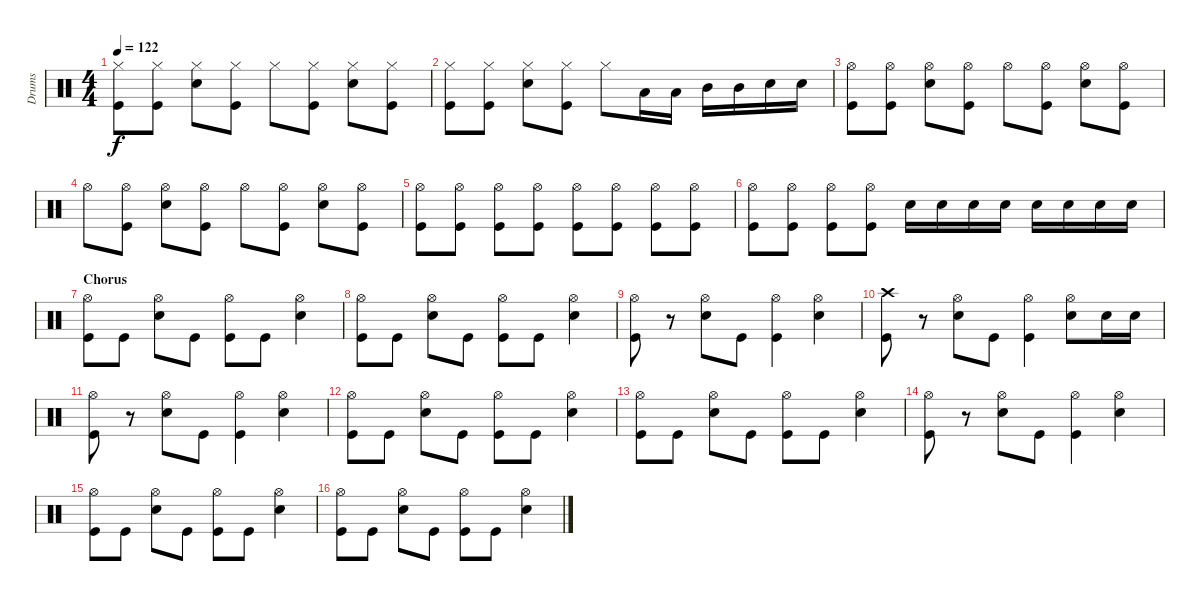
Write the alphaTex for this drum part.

\track ("Drums" "Drums") {instrument percussion}
\staff {score}
\articulation defaults
\ts (4 4)
\tempo 122
\clef neutral
\ks c
("Hi-Hat (closed)" "Kick (hit)").8{dy f} ("Hi-Hat (closed)" "Kick (hit)").8 ("Hi-Hat (closed)" "Snare (hit) 2").8 ("Hi-Hat (closed)" "Kick (hit)").8 "Hi-Hat (closed)".8 ("Hi-Hat (closed)" "Kick (hit)").8 ("Hi-Hat (closed)" "Snare (hit) 2").8 ("Hi-Hat (closed)" "Kick (hit)").8 |
("Hi-Hat (closed)" "Kick (hit)").8 ("Hi-Hat (closed)" "Kick (hit)").8 ("Hi-Hat (closed)" "Snare (hit) 2").8 ("Hi-Hat (closed)" "Kick (hit)").8 "Hi-Hat (closed)".8 "Low Tom (hit)".16 "Low Tom (hit)".16 "Mid Tom (hit)".16 "Mid Tom (hit)".16 "Snare (hit) 2".16 "Snare (hit) 2".16 |
("Hi-Hat (open)" "Kick (hit)").8 ("Hi-Hat (open)" "Kick (hit)").8 ("Hi-Hat (open)" "Snare (hit) 2").8 ("Hi-Hat (open)" "Kick (hit)").8 "Hi-Hat (open)".8 ("Hi-Hat (open)" "Kick (hit)").8 ("Hi-Hat (open)" "Snare (hit) 2").8 ("Hi-Hat (open)" "Kick (hit)").8 |
"Hi-Hat (open)".8 ("Hi-Hat (open)" "Kick (hit)").8 ("Hi-Hat (open)" "Snare (hit) 2").8 ("Hi-Hat (open)" "Kick (hit)").8 "Hi-Hat (open)".8 ("Hi-Hat (open)" "Kick (hit)").8 ("Hi-Hat (open)" "Snare (hit) 2").8 ("Hi-Hat (open)" "Kick (hit)").8 |
("Hi-Hat (open)" "Kick (hit)").8 ("Hi-Hat (open)" "Kick (hit)").8 ("Hi-Hat (open)" "Kick (hit)").8 ("Hi-Hat (open)" "Kick (hit)").8 ("Hi-Hat (open)" "Kick (hit)").8 ("Hi-Hat (open)" "Kick (hit)").8 ("Hi-Hat (open)" "Kick (hit)").8 ("Hi-Hat (open)" "Kick (hit)").8 |
("Hi-Hat (open)" "Kick (hit)").8 ("Hi-Hat (open)" "Kick (hit)").8 ("Hi-Hat (open)" "Kick (hit)").8 ("Hi-Hat (open)" "Kick (hit)").8 "Snare (hit) 2".16 "Snare (hit) 2".16 "Snare (hit) 2".16 "Snare (hit) 2".16 "Snare (hit) 2".16 "Snare (hit) 2".16 "Snare (hit) 2".16 "Snare (hit) 2".16 |
\section ("" "Chorus")
("Hi-Hat (open)" "Kick (hit)").8 "Kick (hit)".8 ("Hi-Hat (open)" "Snare (hit) 2").8 "Kick (hit)".8 ("Hi-Hat (open)" "Kick (hit)").8 "Kick (hit)".8 ("Hi-Hat (open)" "Snare (hit) 2").4 |
("Hi-Hat (open)" "Kick (hit)").8 "Kick (hit)".8 ("Hi-Hat (open)" "Snare (hit) 2").8 "Kick (hit)".8 ("Hi-Hat (open)" "Kick (hit)").8 "Kick (hit)".8 ("Hi-Hat (open)" "Snare (hit) 2").4 |
("Hi-Hat (open)" "Kick (hit)").8 r.8 ("Hi-Hat (open)" "Snare (hit) 2").8 "Kick (hit)".8 ("Hi-Hat (open)" "Kick (hit)").4 ("Hi-Hat (open)" "Snare (hit) 2").4 |
("Crash high (hit)" "Kick (hit)").8 r.8 ("Hi-Hat (open)" "Snare (hit) 2").8 "Kick (hit)".8 ("Hi-Hat (open)" "Kick (hit)").4 ("Hi-Hat (open)" "Snare (hit) 2").8 "Snare (hit) 2".16 "Snare (hit) 2".16 |
("Hi-Hat (open)" "Kick (hit)").8 r.8 ("Hi-Hat (open)" "Snare (hit) 2").8 "Kick (hit)".8 ("Hi-Hat (open)" "Kick (hit)").4 ("Hi-Hat (open)" "Snare (hit) 2").4 |
("Hi-Hat (open)" "Kick (hit)").8 "Kick (hit)".8 ("Hi-Hat (open)" "Snare (hit) 2").8 "Kick (hit)".8 ("Hi-Hat (open)" "Kick (hit)").8 "Kick (hit)".8 ("Hi-Hat (open)" "Snare (hit) 2").4 |
("Hi-Hat (open)" "Kick (hit)").8 "Kick (hit)".8 ("Hi-Hat (open)" "Snare (hit) 2").8 "Kick (hit)".8 ("Hi-Hat (open)" "Kick (hit)").8 "Kick (hit)".8 ("Hi-Hat (open)" "Snare (hit) 2").4 |
("Hi-Hat (open)" "Kick (hit)").8 r.8 ("Hi-Hat (open)" "Snare (hit) 2").8 "Kick (hit)".8 ("Hi-Hat (open)" "Kick (hit)").4 ("Hi-Hat (open)" "Snare (hit) 2").4 |
("Hi-Hat (open)" "Kick (hit)").8 "Kick (hit)".8 ("Hi-Hat (open)" "Snare (hit) 2").8 "Kick (hit)".8 ("Hi-Hat (open)" "Kick (hit)").8 "Kick (hit)".8 ("Hi-Hat (open)" "Snare (hit) 2").4 |
("Hi-Hat (open)" "Kick (hit)").8 "Kick (hit)".8 ("Hi-Hat (open)" "Snare (hit) 2").8 "Kick (hit)".8 ("Hi-Hat (open)" "Kick (hit)").8 "Kick (hit)".8 ("Hi-Hat (open)" "Snare (hit) 2").4
